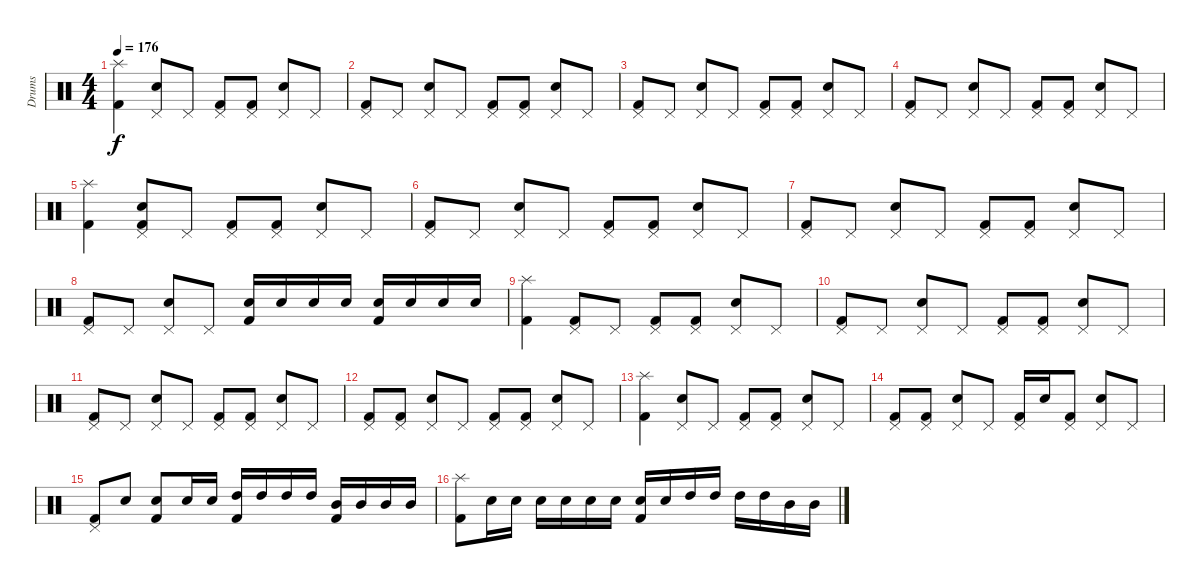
\track ("Drums" "Drums") {instrument percussion}
\staff {score}
\articulation defaults
\ts (4 4)
\tempo 176
\clef neutral
\ks c
("Splash (hit)" "Kick (hit) 2").4{dy f} ("Pedal Hi-Hat (hit)" "Snare (hit) 2").8 "Pedal Hi-Hat (hit)".8 ("Pedal Hi-Hat (hit)" "Kick (hit) 2").8 ("Pedal Hi-Hat (hit)" "Kick (hit) 2").8 ("Pedal Hi-Hat (hit)" "Snare (hit) 2").8 "Pedal Hi-Hat (hit)".8 |
("Pedal Hi-Hat (hit)" "Kick (hit) 2").8 "Pedal Hi-Hat (hit)".8 ("Snare (hit) 2" "Pedal Hi-Hat (hit)").8 "Pedal Hi-Hat (hit)".8 ("Pedal Hi-Hat (hit)" "Kick (hit) 2").8 ("Kick (hit) 2" "Pedal Hi-Hat (hit)").8 ("Pedal Hi-Hat (hit)" "Snare (hit) 2").8 "Pedal Hi-Hat (hit)".8 |
("Pedal Hi-Hat (hit)" "Kick (hit) 2").8 "Pedal Hi-Hat (hit)".8 ("Snare (hit) 2" "Pedal Hi-Hat (hit)").8 "Pedal Hi-Hat (hit)".8 ("Pedal Hi-Hat (hit)" "Kick (hit) 2").8 ("Kick (hit) 2" "Pedal Hi-Hat (hit)").8 ("Pedal Hi-Hat (hit)" "Snare (hit) 2").8 "Pedal Hi-Hat (hit)".8 |
("Pedal Hi-Hat (hit)" "Kick (hit) 2").8 "Pedal Hi-Hat (hit)".8 ("Snare (hit) 2" "Pedal Hi-Hat (hit)").8 "Pedal Hi-Hat (hit)".8 ("Pedal Hi-Hat (hit)" "Kick (hit) 2").8 ("Kick (hit) 2" "Pedal Hi-Hat (hit)").8 ("Pedal Hi-Hat (hit)" "Snare (hit) 2").8 "Pedal Hi-Hat (hit)".8 |
("Splash (hit)" "Kick (hit) 2").4 ("Pedal Hi-Hat (hit)" "Snare (hit) 2" "Kick (hit) 2").8 "Pedal Hi-Hat (hit)".8 ("Kick (hit) 2" "Pedal Hi-Hat (hit)").8 ("Kick (hit) 2" "Pedal Hi-Hat (hit)").8 ("Snare (hit) 2" "Pedal Hi-Hat (hit)").8 "Pedal Hi-Hat (hit)".8 |
("Pedal Hi-Hat (hit)" "Kick (hit) 2").8 "Pedal Hi-Hat (hit)".8 ("Snare (hit) 2" "Pedal Hi-Hat (hit)").8 "Pedal Hi-Hat (hit)".8 ("Pedal Hi-Hat (hit)" "Kick (hit) 2").8 ("Kick (hit) 2" "Pedal Hi-Hat (hit)").8 ("Pedal Hi-Hat (hit)" "Snare (hit) 2").8 "Pedal Hi-Hat (hit)".8 |
("Pedal Hi-Hat (hit)" "Kick (hit) 2").8 "Pedal Hi-Hat (hit)".8 ("Snare (hit) 2" "Pedal Hi-Hat (hit)").8 "Pedal Hi-Hat (hit)".8 ("Pedal Hi-Hat (hit)" "Kick (hit) 2").8 ("Kick (hit) 2" "Pedal Hi-Hat (hit)").8 ("Pedal Hi-Hat (hit)" "Snare (hit) 2").8 "Pedal Hi-Hat (hit)".8 |
("Pedal Hi-Hat (hit)" "Kick (hit) 2").8 "Pedal Hi-Hat (hit)".8 ("Snare (hit) 2" "Pedal Hi-Hat (hit)").8 "Pedal Hi-Hat (hit)".8 ("Kick (hit) 2" "Snare (hit) 2").16 "Snare (hit) 2".16 "Snare (hit) 2".16 "Snare (hit) 2".16 ("Snare (hit) 2" "Kick (hit) 2").16 "Snare (hit) 2".16 "Snare (hit) 2".16 "Snare (hit) 2".16 |
("Kick (hit) 2" "Splash (hit)").4 ("Kick (hit) 2" "Pedal Hi-Hat (hit)").8 "Pedal Hi-Hat (hit)".8 ("Kick (hit) 2" "Pedal Hi-Hat (hit)").8 ("Kick (hit) 2" "Pedal Hi-Hat (hit)").8 ("Snare (hit) 2" "Pedal Hi-Hat (hit)").8 "Pedal Hi-Hat (hit)".8 |
("Pedal Hi-Hat (hit)" "Kick (hit) 2").8 "Pedal Hi-Hat (hit)".8 ("Snare (hit) 2" "Pedal Hi-Hat (hit)").8 "Pedal Hi-Hat (hit)".8 ("Pedal Hi-Hat (hit)" "Kick (hit) 2").8 ("Kick (hit) 2" "Pedal Hi-Hat (hit)").8 ("Pedal Hi-Hat (hit)" "Snare (hit) 2").8 "Pedal Hi-Hat (hit)".8 |
("Pedal Hi-Hat (hit)" "Kick (hit) 2").8 "Pedal Hi-Hat (hit)".8 ("Snare (hit) 2" "Pedal Hi-Hat (hit)").8 "Pedal Hi-Hat (hit)".8 ("Pedal Hi-Hat (hit)" "Kick (hit) 2").8 ("Kick (hit) 2" "Pedal Hi-Hat (hit)").8 ("Pedal Hi-Hat (hit)" "Snare (hit) 2").8 "Pedal Hi-Hat (hit)".8 |
("Pedal Hi-Hat (hit)" "Kick (hit) 2").8 ("Pedal Hi-Hat (hit)" "Kick (hit) 2").8 ("Snare (hit) 2" "Pedal Hi-Hat (hit)").8 "Pedal Hi-Hat (hit)".8 ("Pedal Hi-Hat (hit)" "Kick (hit) 2").8 ("Kick (hit) 2" "Pedal Hi-Hat (hit)").8 ("Pedal Hi-Hat (hit)" "Snare (hit) 2").8 "Pedal Hi-Hat (hit)".8 |
("Kick (hit) 2" "Splash (hit)").4 ("Snare (hit) 2" "Pedal Hi-Hat (hit)").8 "Pedal Hi-Hat (hit)".8 ("Pedal Hi-Hat (hit)" "Kick (hit) 2").8 ("Pedal Hi-Hat (hit)" "Kick (hit) 2").8 ("Pedal Hi-Hat (hit)" "Snare (hit) 2").8 "Pedal Hi-Hat (hit)".8 |
("Kick (hit) 2" "Pedal Hi-Hat (hit)").8 ("Kick (hit) 2" "Pedal Hi-Hat (hit)").8 ("Snare (hit) 2" "Pedal Hi-Hat (hit)").8 "Pedal Hi-Hat (hit)".8 ("Pedal Hi-Hat (hit)" "Kick (hit) 2").16 "Snare (hit) 2".16 ("Pedal Hi-Hat (hit)" "Kick (hit) 2").8 ("Pedal Hi-Hat (hit)" "Snare (hit) 2").8 "Pedal Hi-Hat (hit)".8 |
("Pedal Hi-Hat (hit)" "Kick (hit) 2").8 "Snare (hit) 2".8 ("Kick (hit) 2" "Snare (hit) 2").8 "Snare (hit) 2".16 "Snare (hit) 2".16 ("High Tom (hit)" "Kick (hit) 2").16 "High Tom (hit)".16 "High Tom (hit)".16 "High Tom (hit)".16 ("Mid Tom (hit)" "Kick (hit) 2").16 "Mid Tom (hit)".16 "Mid Tom (hit)".16 "Mid Tom (hit)".16 |
("Splash (hit)" "Kick (hit) 2").8 "Snare (hit) 2".16 "Snare (hit) 2".16 "Snare (hit) 2".16 "Snare (hit) 2".16 "Snare (hit) 2".16 "Snare (hit) 2".16 ("Snare (hit) 2" "Kick (hit) 2").16 "Snare (hit) 2".16 "High Tom (hit)".16 "High Tom (hit)".16 "High Tom (hit)".16 "High Tom (hit)".16 "Mid Tom (hit)".16 "Mid Tom (hit)".16
